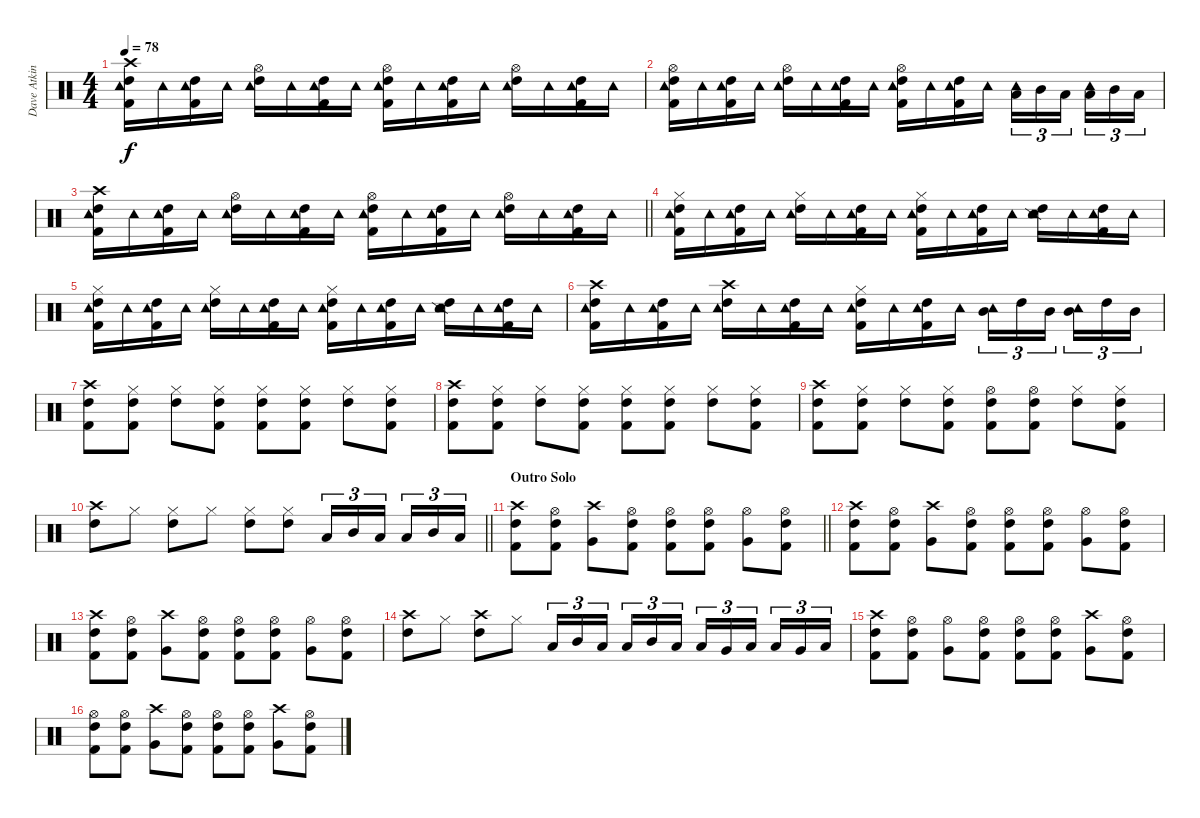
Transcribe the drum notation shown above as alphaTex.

\track ("Dave Atkins" "Dave Atkin") {instrument percussion}
\staff {score}
\articulation defaults
\ts (4 4)
\tempo 78
\clef neutral
\ks c
("Crash high (hit)" "High Tom (hit)" "Kick (hit) 2" "Tambourine (hit)").16{dy f} "Tambourine (hit)".16 ("High Tom (hit)" "Kick (hit) 2" "Tambourine (hit)").16 "Tambourine (hit)".16 ("Hi-Hat (open)" "High Tom (hit)" "Tambourine (hit)").16 "Tambourine (hit)".16 ("High Tom (hit)" "Kick (hit) 2" "Tambourine (hit)").16 "Tambourine (hit)".16 ("Hi-Hat (open)" "High Tom (hit)" "Kick (hit) 2" "Tambourine (hit)").16 "Tambourine (hit)".16 ("High Tom (hit)" "Kick (hit) 2" "Tambourine (hit)").16 "Tambourine (hit)".16 ("Hi-Hat (open)" "High Tom (hit)" "Tambourine (hit)").16 "Tambourine (hit)".16 ("High Tom (hit)" "Kick (hit) 2" "Tambourine (hit)").16 "Tambourine (hit)".16 |
("Hi-Hat (open)" "High Tom (hit)" "Kick (hit) 2" "Tambourine (hit)").16 "Tambourine (hit)".16 ("High Tom (hit)" "Kick (hit) 2" "Tambourine (hit)").16 "Tambourine (hit)".16 ("Hi-Hat (open)" "High Tom (hit)" "Tambourine (hit)").16 "Tambourine (hit)".16 ("High Tom (hit)" "Kick (hit) 2" "Tambourine (hit)").16 "Tambourine (hit)".16 ("Hi-Hat (open)" "High Tom (hit)" "Kick (hit) 2" "Tambourine (hit)").16 "Tambourine (hit)".16 ("High Tom (hit)" "Kick (hit) 2" "Tambourine (hit)").16 "Tambourine (hit)".16 ("Low Tom (hit)" "Tambourine (hit)").16{tu (3 2)} "Mid Tom (hit)".16{tu (3 2)} "Low Tom (hit)".16{tu (3 2) beam splitsecondary} ("Low Tom (hit)" "Tambourine (hit)").16{tu (3 2)} "Mid Tom (hit)".16{tu (3 2)} "Low Tom (hit)".16{tu (3 2)} |
\barLineRight lightlight
("Crash high (hit)" "High Tom (hit)" "Kick (hit) 2" "Tambourine (hit)").16 "Tambourine (hit)".16 ("High Tom (hit)" "Kick (hit) 2" "Tambourine (hit)").16 "Tambourine (hit)".16 ("Hi-Hat (open)" "High Tom (hit)" "Tambourine (hit)").16 "Tambourine (hit)".16 ("High Tom (hit)" "Kick (hit) 2" "Tambourine (hit)").16 "Tambourine (hit)".16 ("Hi-Hat (open)" "High Tom (hit)" "Kick (hit) 2" "Tambourine (hit)").16 "Tambourine (hit)".16 ("High Tom (hit)" "Kick (hit) 2" "Tambourine (hit)").16 "Tambourine (hit)".16 ("Hi-Hat (open)" "High Tom (hit)" "Tambourine (hit)").16 "Tambourine (hit)".16 ("High Tom (hit)" "Kick (hit) 2" "Tambourine (hit)").16 "Tambourine (hit)".16 |
("Hi-Hat (closed)" "High Tom (hit)" "Kick (hit) 2" "Tambourine (hit)").16 "Tambourine (hit)".16 ("High Tom (hit)" "Kick (hit) 2" "Tambourine (hit)").16 "Tambourine (hit)".16 ("Hi-Hat (closed)" "High Tom (hit)" "Tambourine (hit)").16 "Tambourine (hit)".16 ("High Tom (hit)" "Kick (hit) 2" "Tambourine (hit)").16 "Tambourine (hit)".16 ("Hi-Hat (closed)" "High Tom (hit)" "Kick (hit) 2" "Tambourine (hit)").16 "Tambourine (hit)".16 ("High Tom (hit)" "Kick (hit) 2" "Tambourine (hit)").16 "Tambourine (hit)".16 ("Snare (side stick) 2" "High Tom (hit)" "Tambourine (hit)").16 "Tambourine (hit)".16 ("High Tom (hit)" "Kick (hit) 2" "Tambourine (hit)").16 "Tambourine (hit)".16 |
("Hi-Hat (closed)" "High Tom (hit)" "Kick (hit) 2" "Tambourine (hit)").16 "Tambourine (hit)".16 ("High Tom (hit)" "Kick (hit) 2" "Tambourine (hit)").16 "Tambourine (hit)".16 ("Hi-Hat (closed)" "High Tom (hit)" "Tambourine (hit)").16 "Tambourine (hit)".16 ("High Tom (hit)" "Kick (hit) 2" "Tambourine (hit)").16 "Tambourine (hit)".16 ("Hi-Hat (closed)" "High Tom (hit)" "Kick (hit) 2" "Tambourine (hit)").16 "Tambourine (hit)".16 ("High Tom (hit)" "Kick (hit) 2" "Tambourine (hit)").16 "Tambourine (hit)".16 ("Snare (side stick) 2" "High Tom (hit)" "Tambourine (hit)").16 "Tambourine (hit)".16 ("High Tom (hit)" "Kick (hit) 2" "Tambourine (hit)").16 "Tambourine (hit)".16 |
("Crash high (hit)" "High Tom (hit)" "Kick (hit) 2" "Tambourine (hit)").16 "Tambourine (hit)".16 ("High Tom (hit)" "Kick (hit) 2" "Tambourine (hit)").16 "Tambourine (hit)".16 ("Crash high (hit)" "High Tom (hit)" "Tambourine (hit)").16 "Tambourine (hit)".16 ("High Tom (hit)" "Kick (hit) 2" "Tambourine (hit)").16 "Tambourine (hit)".16 ("Hi-Hat (closed)" "High Tom (hit)" "Kick (hit) 2" "Tambourine (hit)").16 "Tambourine (hit)".16 ("High Tom (hit)" "Kick (hit) 2" "Tambourine (hit)").16 "Tambourine (hit)".16 ("Mid Tom (hit)" "Tambourine (hit)").16{tu (3 2)} "High Tom (hit)".16{tu (3 2)} "Mid Tom (hit)".16{tu (3 2) beam splitsecondary} ("Mid Tom (hit)" "Tambourine (hit)").16{tu (3 2)} "High Tom (hit)".16{tu (3 2)} "Mid Tom (hit)".16{tu (3 2)} |
("Crash high (hit)" "High Tom (hit)" "Kick (hit) 2").8 ("Hi-Hat (closed)" "High Tom (hit)" "Kick (hit) 2").8 ("Hi-Hat (closed)" "High Tom (hit)").8 ("Hi-Hat (closed)" "High Tom (hit)" "Kick (hit) 2").8 ("Hi-Hat (closed)" "High Tom (hit)" "Kick (hit) 2").8 ("Hi-Hat (closed)" "High Tom (hit)" "Kick (hit) 2").8 ("Hi-Hat (closed)" "High Tom (hit)").8 ("Hi-Hat (closed)" "High Tom (hit)" "Kick (hit) 2").8 |
("Crash high (hit)" "High Tom (hit)" "Kick (hit) 2").8 ("Hi-Hat (closed)" "High Tom (hit)" "Kick (hit) 2").8 ("Hi-Hat (closed)" "High Tom (hit)").8 ("Hi-Hat (closed)" "High Tom (hit)" "Kick (hit) 2").8 ("Hi-Hat (closed)" "High Tom (hit)" "Kick (hit) 2").8 ("Hi-Hat (closed)" "High Tom (hit)" "Kick (hit) 2").8 ("Hi-Hat (closed)" "High Tom (hit)").8 ("Hi-Hat (closed)" "High Tom (hit)" "Kick (hit) 2").8 |
("Crash high (hit)" "High Tom (hit)" "Kick (hit) 2").8 ("Hi-Hat (closed)" "High Tom (hit)" "Kick (hit) 2").8 ("Hi-Hat (closed)" "High Tom (hit)").8 ("Hi-Hat (closed)" "High Tom (hit)" "Kick (hit) 2").8 ("Hi-Hat (open)" "High Tom (hit)" "Kick (hit) 2").8 ("Hi-Hat (open)" "High Tom (hit)" "Kick (hit) 2").8 ("Hi-Hat (closed)" "High Tom (hit)").8 ("Hi-Hat (closed)" "High Tom (hit)" "Kick (hit) 2").8 |
\barLineRight lightlight
("Crash high (hit)" "High Tom (hit)").8 "Hi-Hat (closed)".8 ("Hi-Hat (closed)" "High Tom (hit)").8 "Hi-Hat (closed)".8 ("Hi-Hat (closed)" "High Tom (hit)").8 ("Hi-Hat (closed)" "High Tom (hit)").8 "Low Tom (hit)".16{tu (3 2)} "Mid Tom (hit)".16{tu (3 2)} "Low Tom (hit)".16{tu (3 2) beam splitsecondary} "Low Tom (hit)".16{tu (3 2)} "Mid Tom (hit)".16{tu (3 2)} "Low Tom (hit)".16{tu (3 2)} |
\section ("" "Outro Solo")
\barLineRight lightlight
("Crash high (hit)" "High Tom (hit)" "Kick (hit) 2").8 ("Hi-Hat (open)" "High Tom (hit)" "Kick (hit) 2").8 ("Crash high (hit)" "Very Low Tom (hit)").8 ("Hi-Hat (open)" "High Tom (hit)" "Kick (hit) 2").8 ("Hi-Hat (open)" "High Tom (hit)" "Kick (hit) 2").8 ("Hi-Hat (open)" "High Tom (hit)" "Kick (hit) 2").8 ("Hi-Hat (open)" "Very Low Tom (hit)").8 ("Hi-Hat (open)" "High Tom (hit)" "Kick (hit) 2").8 |
\section ("" "")
("Crash high (hit)" "High Tom (hit)" "Kick (hit) 2").8 ("Hi-Hat (open)" "High Tom (hit)" "Kick (hit) 2").8 ("Crash high (hit)" "Very Low Tom (hit)").8 ("Hi-Hat (open)" "High Tom (hit)" "Kick (hit) 2").8 ("Hi-Hat (open)" "High Tom (hit)" "Kick (hit) 2").8 ("Hi-Hat (open)" "High Tom (hit)" "Kick (hit) 2").8 ("Hi-Hat (open)" "Very Low Tom (hit)").8 ("Hi-Hat (open)" "High Tom (hit)" "Kick (hit) 2").8 |
("Crash high (hit)" "High Tom (hit)" "Kick (hit) 2").8 ("Hi-Hat (open)" "High Tom (hit)" "Kick (hit) 2").8 ("Crash high (hit)" "Very Low Tom (hit)").8 ("Hi-Hat (open)" "High Tom (hit)" "Kick (hit) 2").8 ("Hi-Hat (open)" "High Tom (hit)" "Kick (hit) 2").8 ("Hi-Hat (open)" "High Tom (hit)" "Kick (hit) 2").8 ("Hi-Hat (open)" "Very Low Tom (hit)").8 ("Hi-Hat (open)" "High Tom (hit)" "Kick (hit) 2").8 |
("Crash high (hit)" "High Tom (hit)").8 "Hi-Hat (closed)".8 ("Crash high (hit)" "High Tom (hit)").8 "Hi-Hat (closed)".8 "Low Tom (hit)".16{tu (3 2)} "Mid Tom (hit)".16{tu (3 2)} "Low Tom (hit)".16{tu (3 2) beam splitsecondary} "Low Tom (hit)".16{tu (3 2)} "Mid Tom (hit)".16{tu (3 2)} "Low Tom (hit)".16{tu (3 2)} "Low Floor Tom (hit)".16{tu (3 2)} "Very Low Tom (hit)".16{tu (3 2)} "Low Floor Tom (hit)".16{tu (3 2) beam splitsecondary} "Low Floor Tom (hit)".16{tu (3 2)} "Very Low Tom (hit)".16{tu (3 2)} "Low Floor Tom (hit)".16{tu (3 2)} |
("Crash high (hit)" "High Tom (hit)" "Kick (hit) 2").8 ("Hi-Hat (open)" "High Tom (hit)" "Kick (hit) 2").8 ("Hi-Hat (open)" "Very Low Tom (hit)").8 ("Hi-Hat (open)" "High Tom (hit)" "Kick (hit) 2").8 ("Hi-Hat (open)" "High Tom (hit)" "Kick (hit) 2").8 ("Hi-Hat (open)" "High Tom (hit)" "Kick (hit) 2").8 ("Crash high (hit)" "Very Low Tom (hit)").8 ("Hi-Hat (open)" "High Tom (hit)" "Kick (hit) 2").8 |
("Hi-Hat (open)" "High Tom (hit)" "Kick (hit) 2").8 ("Hi-Hat (open)" "High Tom (hit)" "Kick (hit) 2").8 ("Crash high (hit)" "Very Low Tom (hit)").8 ("Hi-Hat (open)" "High Tom (hit)" "Kick (hit) 2").8 ("Hi-Hat (open)" "High Tom (hit)" "Kick (hit) 2").8 ("Hi-Hat (open)" "High Tom (hit)" "Kick (hit) 2").8 ("Crash high (hit)" "Very Low Tom (hit)").8 ("Hi-Hat (open)" "High Tom (hit)" "Kick (hit) 2").8
